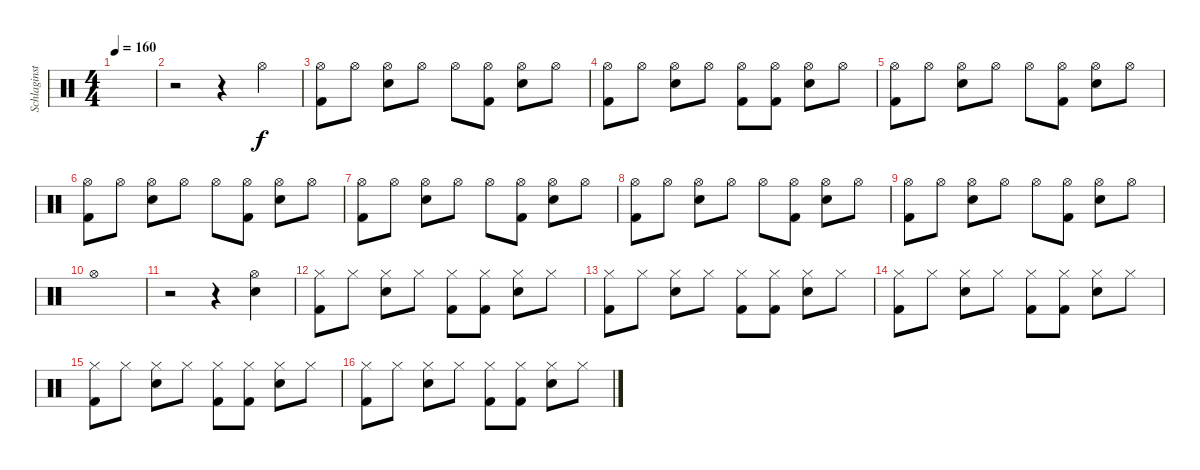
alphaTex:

\track ("Schlaginstrumente - Auswahl" "Schlaginst") {instrument percussion}
\staff {score}
\articulation defaults
\ts (4 4)
\tempo 160
\clef neutral
\ks c
|
r.2 r.4 "Hi-Hat (open)".4 |
("Kick (hit) 2" "Hi-Hat (open)").8 "Hi-Hat (open)".8 ("Snare (hit) 2" "Hi-Hat (open)").8 "Hi-Hat (open)".8 "Hi-Hat (open)".8 ("Kick (hit) 2" "Hi-Hat (open)").8 ("Snare (hit) 2" "Hi-Hat (open)").8 "Hi-Hat (open)".8 |
("Kick (hit) 2" "Hi-Hat (open)").8 "Hi-Hat (open)".8 ("Snare (hit) 2" "Hi-Hat (open)").8 "Hi-Hat (open)".8 ("Kick (hit) 2" "Hi-Hat (open)").8 ("Kick (hit) 2" "Hi-Hat (open)").8 ("Snare (hit) 2" "Hi-Hat (open)").8 "Hi-Hat (open)".8 |
("Kick (hit) 2" "Hi-Hat (open)").8 "Hi-Hat (open)".8 ("Snare (hit) 2" "Hi-Hat (open)").8 "Hi-Hat (open)".8 "Hi-Hat (open)".8 ("Kick (hit) 2" "Hi-Hat (open)").8 ("Snare (hit) 2" "Hi-Hat (open)").8 "Hi-Hat (open)".8 |
("Kick (hit) 2" "Hi-Hat (open)").8 "Hi-Hat (open)".8 ("Snare (hit) 2" "Hi-Hat (open)").8 "Hi-Hat (open)".8 "Hi-Hat (open)".8 ("Kick (hit) 2" "Hi-Hat (open)").8 ("Snare (hit) 2" "Hi-Hat (open)").8 "Hi-Hat (open)".8 |
("Kick (hit) 2" "Hi-Hat (open)").8 "Hi-Hat (open)".8 ("Snare (hit) 2" "Hi-Hat (open)").8 "Hi-Hat (open)".8 "Hi-Hat (open)".8 ("Kick (hit) 2" "Hi-Hat (open)").8 ("Snare (hit) 2" "Hi-Hat (open)").8 "Hi-Hat (open)".8 |
("Kick (hit) 2" "Hi-Hat (open)").8 "Hi-Hat (open)".8 ("Snare (hit) 2" "Hi-Hat (open)").8 "Hi-Hat (open)".8 "Hi-Hat (open)".8 ("Kick (hit) 2" "Hi-Hat (open)").8 ("Snare (hit) 2" "Hi-Hat (open)").8 "Hi-Hat (open)".8 |
("Kick (hit) 2" "Hi-Hat (open)").8 "Hi-Hat (open)".8 ("Snare (hit) 2" "Hi-Hat (open)").8 "Hi-Hat (open)".8 "Hi-Hat (open)".8 ("Kick (hit) 2" "Hi-Hat (open)").8 ("Snare (hit) 2" "Hi-Hat (open)").8 "Hi-Hat (open)".8 |
"Hi-Hat (open)".1 |
r.2 r.4 ("Hi-Hat (open)" "Snare (hit) 2").4 |
("Hi-Hat (closed)" "Kick (hit) 2").8 "Hi-Hat (closed)".8 ("Hi-Hat (closed)" "Snare (hit) 2").8 "Hi-Hat (closed)".8 ("Hi-Hat (closed)" "Kick (hit) 2").8 ("Hi-Hat (closed)" "Kick (hit) 2").8 ("Hi-Hat (closed)" "Snare (hit) 2").8 "Hi-Hat (closed)".8 |
("Hi-Hat (closed)" "Kick (hit) 2").8 "Hi-Hat (closed)".8 ("Hi-Hat (closed)" "Snare (hit) 2").8 "Hi-Hat (closed)".8 ("Hi-Hat (closed)" "Kick (hit) 2").8 ("Hi-Hat (closed)" "Kick (hit) 2").8 ("Hi-Hat (closed)" "Snare (hit) 2").8 "Hi-Hat (closed)".8 |
("Hi-Hat (closed)" "Kick (hit) 2").8 "Hi-Hat (closed)".8 ("Hi-Hat (closed)" "Snare (hit) 2").8 "Hi-Hat (closed)".8 ("Hi-Hat (closed)" "Kick (hit) 2").8 ("Hi-Hat (closed)" "Kick (hit) 2").8 ("Hi-Hat (closed)" "Snare (hit) 2").8 "Hi-Hat (closed)".8 |
("Hi-Hat (closed)" "Kick (hit) 2").8 "Hi-Hat (closed)".8 ("Hi-Hat (closed)" "Snare (hit) 2").8 "Hi-Hat (closed)".8 ("Hi-Hat (closed)" "Kick (hit) 2").8 ("Hi-Hat (closed)" "Kick (hit) 2").8 ("Hi-Hat (closed)" "Snare (hit) 2").8 "Hi-Hat (closed)".8 |
("Hi-Hat (closed)" "Kick (hit) 2").8 "Hi-Hat (closed)".8 ("Hi-Hat (closed)" "Snare (hit) 2").8 "Hi-Hat (closed)".8 ("Hi-Hat (closed)" "Kick (hit) 2").8 ("Hi-Hat (closed)" "Kick (hit) 2").8 ("Hi-Hat (closed)" "Snare (hit) 2").8 "Hi-Hat (closed)".8
